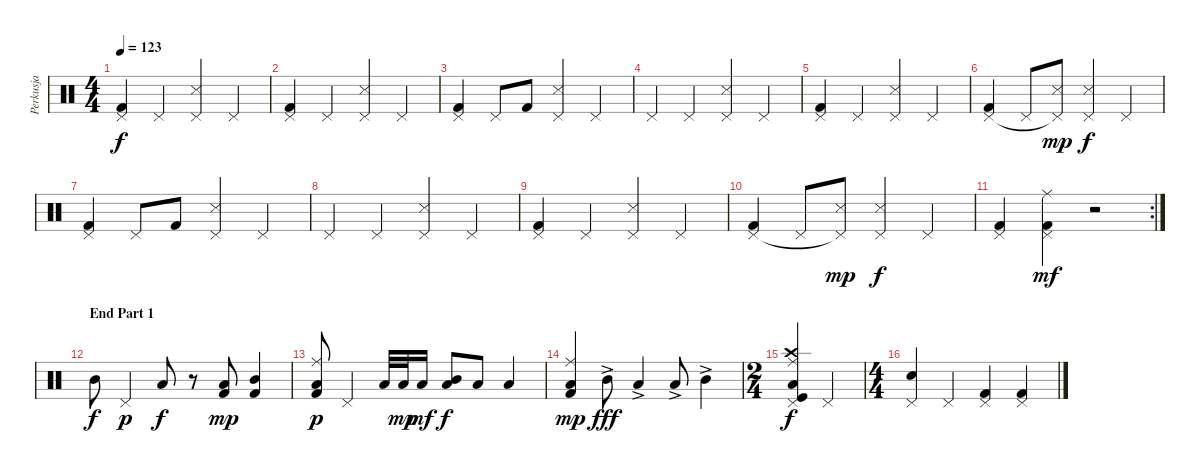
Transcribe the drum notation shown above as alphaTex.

\track ("Perkusja" "Perkusja") {instrument percussion}
\staff {score}
\articulation defaults
\ts (4 4)
\tempo 123
\clef neutral
\ks c
("Kick (hit) 2" "Pedal Hi-Hat (hit)").4{dy f} "Pedal Hi-Hat (hit)".4 ("Snare (side stick) 3" "Pedal Hi-Hat (hit)").4 "Pedal Hi-Hat (hit)".4 |
("Kick (hit) 2" "Pedal Hi-Hat (hit)").4 "Pedal Hi-Hat (hit)".4 ("Snare (side stick) 3" "Pedal Hi-Hat (hit)").4 "Pedal Hi-Hat (hit)".4 |
("Kick (hit) 2" "Pedal Hi-Hat (hit)").4 "Pedal Hi-Hat (hit)".8 "Kick (hit) 2".8 ("Snare (side stick) 3" "Pedal Hi-Hat (hit)").4 "Pedal Hi-Hat (hit)".4 |
"Pedal Hi-Hat (hit)".4 "Pedal Hi-Hat (hit)".4 ("Snare (side stick) 3" "Pedal Hi-Hat (hit)").4 "Pedal Hi-Hat (hit)".4 |
("Kick (hit) 2" "Pedal Hi-Hat (hit)").4 "Pedal Hi-Hat (hit)".4 ("Snare (side stick) 3" "Pedal Hi-Hat (hit)").4 "Pedal Hi-Hat (hit)".4 |
("Kick (hit) 2" "Pedal Hi-Hat (hit)").4 "Pedal Hi-Hat (hit)".8 ("Snare (side stick) 3" "Pedal Hi-Hat (hit)"{t}).8{dy mp} ("Snare (side stick) 3" "Pedal Hi-Hat (hit)").4{dy f} "Pedal Hi-Hat (hit)".4 |
("Kick (hit) 2" "Pedal Hi-Hat (hit)").4 "Pedal Hi-Hat (hit)".8 "Kick (hit) 2".8 ("Snare (side stick) 3" "Pedal Hi-Hat (hit)").4 "Pedal Hi-Hat (hit)".4 |
"Pedal Hi-Hat (hit)".4 "Pedal Hi-Hat (hit)".4 ("Snare (side stick) 3" "Pedal Hi-Hat (hit)").4 "Pedal Hi-Hat (hit)".4 |
("Kick (hit) 2" "Pedal Hi-Hat (hit)").4 "Pedal Hi-Hat (hit)".4 ("Snare (side stick) 3" "Pedal Hi-Hat (hit)").4 "Pedal Hi-Hat (hit)".4 |
("Kick (hit) 2" "Pedal Hi-Hat (hit)").4 "Pedal Hi-Hat (hit)".8 ("Snare (side stick) 3" "Pedal Hi-Hat (hit)"{t}).8{dy mp} ("Snare (side stick) 3" "Pedal Hi-Hat (hit)").4{dy f} "Pedal Hi-Hat (hit)".4 |
\rc 2
("Kick (hit) 2" "Pedal Hi-Hat (hit)").4 ("Ride (middle)" "Kick (hit) 2" "Pedal Hi-Hat (hit)").4{dy mf} r.2 |
\section ("" "End Part 1")
"Mid Tom (hit)".8{dy f} "Pedal Hi-Hat (hit)".4{dy p} "Low Tom (hit)".8{dy f} r.8 ("Low Tom (hit)" "Kick (hit) 2").8{dy mp} ("Mid Tom (hit)" "Kick (hit) 2").4 |
("Ride (middle)" "Low Tom (hit)" "Kick (hit) 2").8{dy p} "Pedal Hi-Hat (hit)".4 "Low Floor Tom (hit)".32 "Low Tom (hit)".32{dy mp} "Low Tom (hit)".16{dy mf} ("Low Floor Tom (hit)" "Mid Tom (hit)").8{dy f} "Low Tom (hit)".8 "Low Floor Tom (hit)".4 |
("Ride (middle)" "Low Tom (hit)" "Kick (hit) 2").4{dy mp} "Mid Tom (hit)"{ac}.8{dy fff} "Low Tom (hit)"{ac}.4 "Low Tom (hit)"{ac}.8 "Mid Tom (hit)"{ac}.4 |
\ts (2 4)
("Ride (middle)" "Crash high (hit)" "Low Tom (hit)" "Kick (hit)" "Pedal Hi-Hat (hit)").4{dy f} "Pedal Hi-Hat (hit)".4 |
\ts (4 4)
("Snare (hit) 2" "Pedal Hi-Hat (hit)").4 "Pedal Hi-Hat (hit)".4 ("Kick (hit) 2" "Pedal Hi-Hat (hit)").4 ("Kick (hit) 2" "Pedal Hi-Hat (hit)").4
